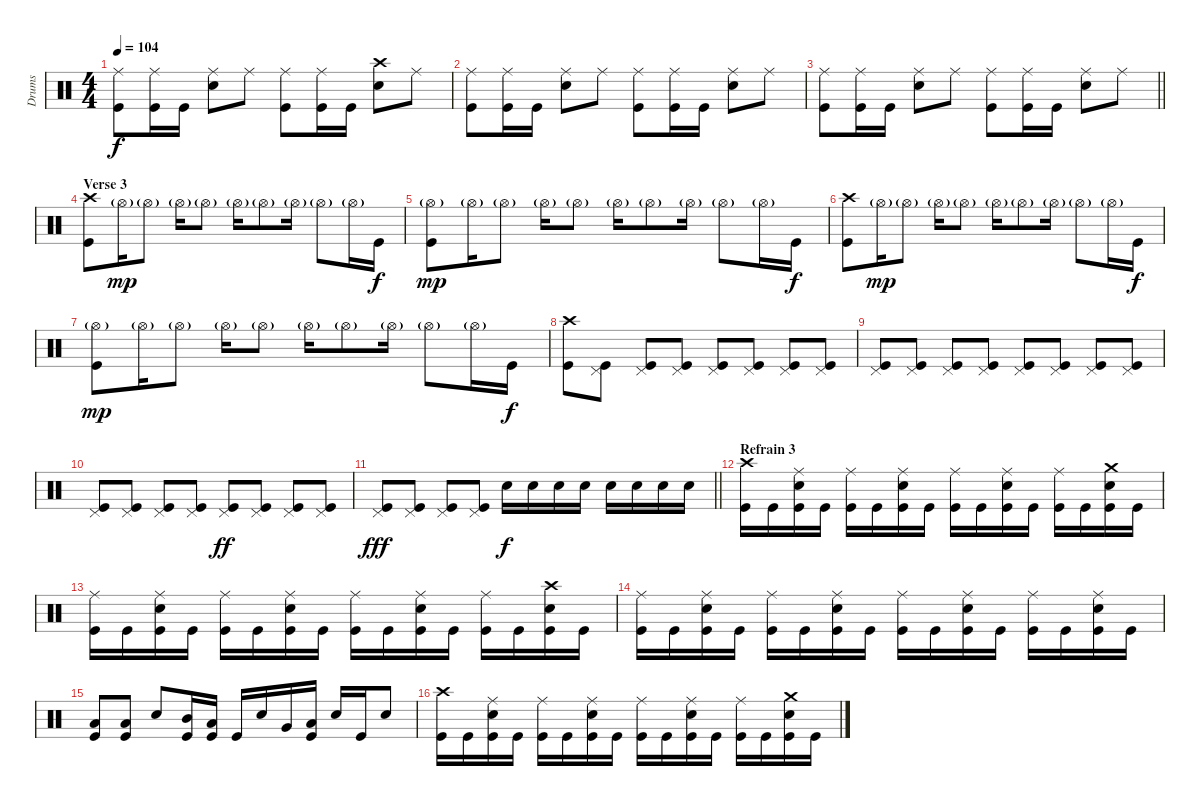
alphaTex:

\track ("Drums" "Drums") {instrument percussion}
\staff {score}
\articulation defaults
\ts (4 4)
\tempo 104
\clef neutral
\ks c
("Ride (middle)" "Kick (hit)").8{dy f} ("Ride (middle)" "Kick (hit)").16 "Kick (hit)".16 ("Ride (middle)" "Electric Snare (hit)").8 "Ride (middle)".8 ("Ride (middle)" "Kick (hit)").8 ("Ride (middle)" "Kick (hit)").16 "Kick (hit)".16 ("Crash high (hit)" "Electric Snare (hit)").8 "Ride (middle)".8 |
("Ride (middle)" "Kick (hit)").8 ("Ride (middle)" "Kick (hit)").16 "Kick (hit)".16 ("Ride (middle)" "Electric Snare (hit)").8 "Ride (middle)".8 ("Ride (middle)" "Kick (hit)").8 ("Ride (middle)" "Kick (hit)").16 "Kick (hit)".16 ("Ride (middle)" "Electric Snare (hit)").8 "Ride (middle)".8 |
\barLineRight lightlight
("Ride (middle)" "Kick (hit)").8 ("Ride (middle)" "Kick (hit)").16 "Kick (hit)".16 ("Ride (middle)" "Electric Snare (hit)").8 "Ride (middle)".8 ("Ride (middle)" "Kick (hit)").8 ("Ride (middle)" "Kick (hit)").16 "Kick (hit)".16 ("Ride (middle)" "Electric Snare (hit)").8 "Ride (middle)".8 |
\section ("" "Verse 3")
("Crash high (hit)" "Kick (hit)").8 "Hi-Hat (open)"{g}.16{dy mp} "Hi-Hat (open)"{g}.8 "Hi-Hat (open)"{g}.16 "Hi-Hat (open)"{g}.8 "Hi-Hat (open)"{g}.16 "Hi-Hat (open)"{g}.8 "Hi-Hat (open)"{g}.16 "Hi-Hat (open)"{g}.8 "Hi-Hat (open)"{g}.16 "Kick (hit)".16{dy f} |
("Hi-Hat (open)"{g} "Kick (hit)").8{dy mp} "Hi-Hat (open)"{g}.16 "Hi-Hat (open)"{g}.8 "Hi-Hat (open)"{g}.16 "Hi-Hat (open)"{g}.8 "Hi-Hat (open)"{g}.16 "Hi-Hat (open)"{g}.8 "Hi-Hat (open)"{g}.16 "Hi-Hat (open)"{g}.8 "Hi-Hat (open)"{g}.16 "Kick (hit)".16{dy f} |
("Crash high (hit)" "Kick (hit)").8 "Hi-Hat (open)"{g}.16{dy mp} "Hi-Hat (open)"{g}.8 "Hi-Hat (open)"{g}.16 "Hi-Hat (open)"{g}.8 "Hi-Hat (open)"{g}.16 "Hi-Hat (open)"{g}.8 "Hi-Hat (open)"{g}.16 "Hi-Hat (open)"{g}.8 "Hi-Hat (open)"{g}.16 "Kick (hit)".16{dy f} |
("Hi-Hat (open)"{g} "Kick (hit)").8{dy mp} "Hi-Hat (open)"{g}.16 "Hi-Hat (open)"{g}.8 "Hi-Hat (open)"{g}.16 "Hi-Hat (open)"{g}.8 "Hi-Hat (open)"{g}.16 "Hi-Hat (open)"{g}.8 "Hi-Hat (open)"{g}.16 "Hi-Hat (open)"{g}.8 "Hi-Hat (open)"{g}.16 "Kick (hit)".16{dy f} |
("Crash high (hit)" "Kick (hit)").8 ("Pedal Hi-Hat (hit)" "Kick (hit)").8 ("Pedal Hi-Hat (hit)" "Kick (hit)").8 ("Pedal Hi-Hat (hit)" "Kick (hit)").8 ("Pedal Hi-Hat (hit)" "Kick (hit)").8 ("Pedal Hi-Hat (hit)" "Kick (hit)").8 ("Pedal Hi-Hat (hit)" "Kick (hit)").8 ("Pedal Hi-Hat (hit)" "Kick (hit)").8 |
("Pedal Hi-Hat (hit)" "Kick (hit)").8 ("Pedal Hi-Hat (hit)" "Kick (hit)").8 ("Pedal Hi-Hat (hit)" "Kick (hit)").8 ("Pedal Hi-Hat (hit)" "Kick (hit)").8 ("Pedal Hi-Hat (hit)" "Kick (hit)").8 ("Pedal Hi-Hat (hit)" "Kick (hit)").8 ("Pedal Hi-Hat (hit)" "Kick (hit)").8 ("Pedal Hi-Hat (hit)" "Kick (hit)").8 |
("Pedal Hi-Hat (hit)" "Kick (hit)").8 ("Pedal Hi-Hat (hit)" "Kick (hit)").8 ("Pedal Hi-Hat (hit)" "Kick (hit)").8 ("Pedal Hi-Hat (hit)" "Kick (hit)").8 ("Pedal Hi-Hat (hit)" "Kick (hit)").8{dy ff} ("Pedal Hi-Hat (hit)" "Kick (hit)").8 ("Pedal Hi-Hat (hit)" "Kick (hit)").8 ("Pedal Hi-Hat (hit)" "Kick (hit)").8 |
\barLineRight lightlight
("Pedal Hi-Hat (hit)" "Kick (hit)").8{dy fff} ("Pedal Hi-Hat (hit)" "Kick (hit)").8 ("Pedal Hi-Hat (hit)" "Kick (hit)").8 ("Pedal Hi-Hat (hit)" "Kick (hit)").8 "Electric Snare (hit)".16{dy f} "Electric Snare (hit)".16 "Electric Snare (hit)".16 "Electric Snare (hit)".16 "Electric Snare (hit)".16 "Electric Snare (hit)".16 "Electric Snare (hit)".16 "Electric Snare (hit)".16 |
\section ("" "Refrain 3")
("Crash high (hit)" "Kick (hit)").16 "Kick (hit)".16 ("Ride (middle)" "Electric Snare (hit)" "Kick (hit)").16 "Kick (hit)".16 ("Ride (middle)" "Kick (hit)").16 "Kick (hit)".16 ("Ride (middle)" "Electric Snare (hit)" "Kick (hit)").16 "Kick (hit)".16 ("Ride (middle)" "Kick (hit)").16 "Kick (hit)".16 ("Ride (middle)" "Electric Snare (hit)" "Kick (hit)").16 "Kick (hit)".16 ("Ride (middle)" "Kick (hit)").16 "Kick (hit)".16 ("Crash medium (hit)" "Electric Snare (hit)" "Kick (hit)").16 "Kick (hit)".16 |
("Ride (middle)" "Kick (hit)").16 "Kick (hit)".16 ("Ride (middle)" "Electric Snare (hit)" "Kick (hit)").16 "Kick (hit)".16 ("Ride (middle)" "Kick (hit)").16 "Kick (hit)".16 ("Ride (middle)" "Electric Snare (hit)" "Kick (hit)").16 "Kick (hit)".16 ("Ride (middle)" "Kick (hit)").16 "Kick (hit)".16 ("Ride (middle)" "Electric Snare (hit)" "Kick (hit)").16 "Kick (hit)".16 ("Ride (middle)" "Kick (hit)").16 "Kick (hit)".16 ("Crash high (hit)" "Electric Snare (hit)" "Kick (hit)").16 "Kick (hit)".16 |
("Ride (middle)" "Kick (hit)").16 "Kick (hit)".16 ("Ride (middle)" "Electric Snare (hit)" "Kick (hit)").16 "Kick (hit)".16 ("Ride (middle)" "Kick (hit)").16 "Kick (hit)".16 ("Ride (middle)" "Electric Snare (hit)" "Kick (hit)").16 "Kick (hit)".16 ("Ride (middle)" "Kick (hit)").16 "Kick (hit)".16 ("Ride (middle)" "Electric Snare (hit)" "Kick (hit)").16 "Kick (hit)".16 ("Ride (middle)" "Kick (hit)").16 "Kick (hit)".16 ("Ride (middle)" "Electric Snare (hit)" "Kick (hit)").16 "Kick (hit)".16 |
("Low Tom (hit)" "Kick (hit)").8 ("Low Tom (hit)" "Kick (hit)").8 "Electric Snare (hit)".8 ("Mid Tom (hit)" "Kick (hit)").16 ("Low Tom (hit)" "Kick (hit)").16 "Kick (hit)".16 "Electric Snare (hit)".16 "Very Low Tom (hit)".16 ("Low Floor Tom (hit)" "Kick (hit)").16 "Electric Snare (hit)".16 "Kick (hit)".16 "Electric Snare (hit)".8 |
("Crash high (hit)" "Kick (hit)").16 "Kick (hit)".16 ("Ride (middle)" "Electric Snare (hit)" "Kick (hit)").16 "Kick (hit)".16 ("Ride (middle)" "Kick (hit)").16 "Kick (hit)".16 ("Ride (middle)" "Electric Snare (hit)" "Kick (hit)").16 "Kick (hit)".16 ("Ride (middle)" "Kick (hit)").16 "Kick (hit)".16 ("Ride (middle)" "Electric Snare (hit)" "Kick (hit)").16 "Kick (hit)".16 ("Ride (middle)" "Kick (hit)").16 "Kick (hit)".16 ("Crash medium (hit)" "Electric Snare (hit)" "Kick (hit)").16 "Kick (hit)".16
